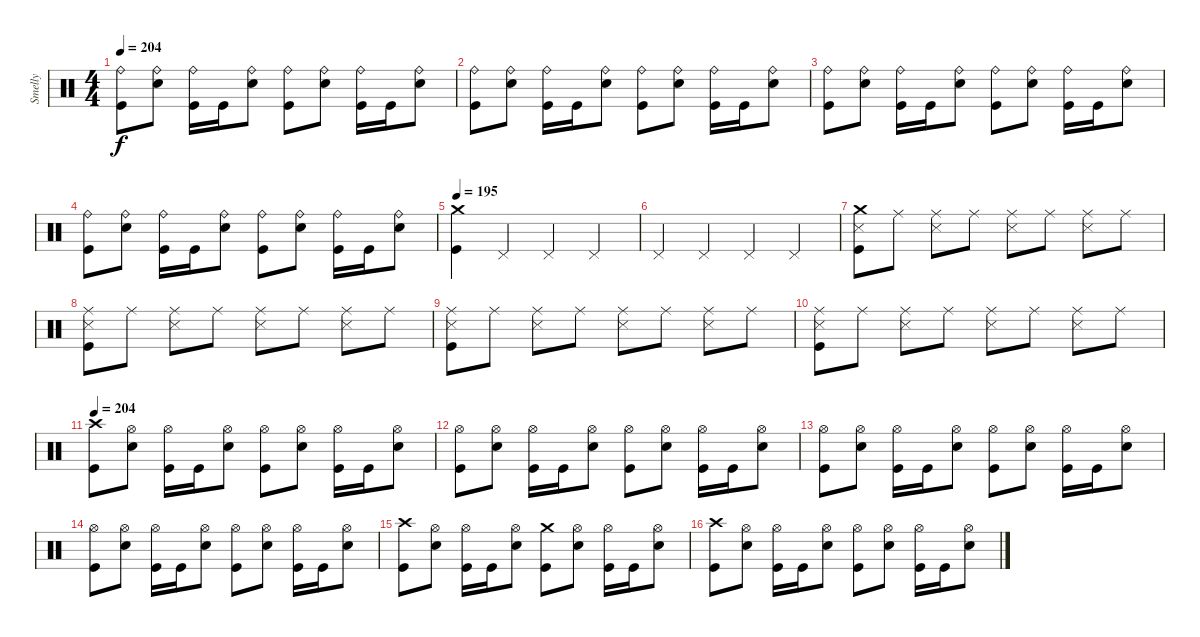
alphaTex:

\track ("Smelly" "Smelly") {instrument percussion}
\staff {score}
\articulation defaults
\ts (4 4)
\tempo 204
\clef neutral
\ks c
("Ride (bell)" "Kick (hit)").8{dy f} ("Ride (bell)" "Snare (hit) 2").8 ("Ride (bell)" "Kick (hit)").16 "Kick (hit)".16 ("Ride (bell)" "Snare (hit) 2").8 ("Ride (bell)" "Kick (hit)").8 ("Ride (bell)" "Snare (hit) 2").8 ("Ride (bell)" "Kick (hit)").16 "Kick (hit)".16 ("Ride (bell)" "Snare (hit) 2").8 |
("Ride (bell)" "Kick (hit)").8 ("Ride (bell)" "Snare (hit) 2").8 ("Ride (bell)" "Kick (hit)").16 "Kick (hit)".16 ("Ride (bell)" "Snare (hit) 2").8 ("Ride (bell)" "Kick (hit)").8 ("Ride (bell)" "Snare (hit) 2").8 ("Ride (bell)" "Kick (hit)").16 "Kick (hit)".16 ("Ride (bell)" "Snare (hit) 2").8 |
("Ride (bell)" "Kick (hit)").8 ("Ride (bell)" "Snare (hit) 2").8 ("Ride (bell)" "Kick (hit)").16 "Kick (hit)".16 ("Ride (bell)" "Snare (hit) 2").8 ("Ride (bell)" "Kick (hit)").8 ("Ride (bell)" "Snare (hit) 2").8 ("Ride (bell)" "Kick (hit)").16 "Kick (hit)".16 ("Ride (bell)" "Snare (hit) 2").8 |
("Ride (bell)" "Kick (hit)").8 ("Ride (bell)" "Snare (hit) 2").8 ("Ride (bell)" "Kick (hit)").16 "Kick (hit)".16 ("Ride (bell)" "Snare (hit) 2").8 ("Ride (bell)" "Kick (hit)").8 ("Ride (bell)" "Snare (hit) 2").8 ("Ride (bell)" "Kick (hit)").16 "Kick (hit)".16 ("Ride (bell)" "Snare (hit) 2").8 |
\tempo 195
("Crash medium (hit)" "Kick (hit)").4 "Pedal Hi-Hat (hit)".4 "Pedal Hi-Hat (hit)".4 "Pedal Hi-Hat (hit)".4 |
"Pedal Hi-Hat (hit)".4 "Pedal Hi-Hat (hit)".4 "Pedal Hi-Hat (hit)".4 "Pedal Hi-Hat (hit)".4 |
("Crash medium (hit)" "Snare (side stick) 3" "Kick (hit)").8 "Ride (middle)".8 ("Ride (middle)" "Snare (side stick) 3").8 "Ride (middle)".8 ("Ride (middle)" "Snare (side stick) 3").8 "Ride (middle)".8 ("Ride (middle)" "Snare (side stick) 3").8 "Ride (middle)".8 |
("Ride (middle)" "Snare (side stick) 3" "Kick (hit)").8 "Ride (middle)".8 ("Ride (middle)" "Snare (side stick) 3").8 "Ride (middle)".8 ("Ride (middle)" "Snare (side stick) 3").8 "Ride (middle)".8 ("Ride (middle)" "Snare (side stick) 3").8 "Ride (middle)".8 |
("Ride (middle)" "Snare (side stick) 3" "Kick (hit)").8 "Ride (middle)".8 ("Ride (middle)" "Snare (side stick) 3").8 "Ride (middle)".8 ("Ride (middle)" "Snare (side stick) 3").8 "Ride (middle)".8 ("Ride (middle)" "Snare (side stick) 3").8 "Ride (middle)".8 |
("Ride (middle)" "Snare (side stick) 3" "Kick (hit)").8 "Ride (middle)".8 ("Ride (middle)" "Snare (side stick) 3").8 "Ride (middle)".8 ("Ride (middle)" "Snare (side stick) 3").8 "Ride (middle)".8 ("Ride (middle)" "Snare (side stick) 3").8 "Ride (middle)".8 |
\tempo 204
("Crash high (hit)" "Kick (hit)").8 ("Hi-Hat (open)" "Snare (hit) 2").8 ("Hi-Hat (open)" "Kick (hit)").16 "Kick (hit)".16 ("Hi-Hat (open)" "Snare (hit) 2").8 ("Hi-Hat (open)" "Kick (hit)").8 ("Hi-Hat (open)" "Snare (hit) 2").8 ("Hi-Hat (open)" "Kick (hit)").16 "Kick (hit)".16 ("Hi-Hat (open)" "Snare (hit) 2").8 |
("Hi-Hat (open)" "Kick (hit)").8 ("Hi-Hat (open)" "Snare (hit) 2").8 ("Hi-Hat (open)" "Kick (hit)").16 "Kick (hit)".16 ("Hi-Hat (open)" "Snare (hit) 2").8 ("Hi-Hat (open)" "Kick (hit)").8 ("Hi-Hat (open)" "Snare (hit) 2").8 ("Hi-Hat (open)" "Kick (hit)").16 "Kick (hit)".16 ("Hi-Hat (open)" "Snare (hit) 2").8 |
("Hi-Hat (open)" "Kick (hit)").8 ("Hi-Hat (open)" "Snare (hit) 2").8 ("Hi-Hat (open)" "Kick (hit)").16 "Kick (hit)".16 ("Hi-Hat (open)" "Snare (hit) 2").8 ("Hi-Hat (open)" "Kick (hit)").8 ("Hi-Hat (open)" "Snare (hit) 2").8 ("Hi-Hat (open)" "Kick (hit)").16 "Kick (hit)".16 ("Hi-Hat (open)" "Snare (hit) 2").8 |
("Hi-Hat (open)" "Kick (hit)").8 ("Hi-Hat (open)" "Snare (hit) 2").8 ("Hi-Hat (open)" "Kick (hit)").16 "Kick (hit)".16 ("Hi-Hat (open)" "Snare (hit) 2").8 ("Hi-Hat (open)" "Kick (hit)").8 ("Hi-Hat (open)" "Snare (hit) 2").8 ("Hi-Hat (open)" "Kick (hit)").16 "Kick (hit)".16 ("Hi-Hat (open)" "Snare (hit) 2").8 |
("Crash high (hit)" "Kick (hit)").8 ("Hi-Hat (open)" "Snare (hit) 2").8 ("Hi-Hat (open)" "Kick (hit)").16 "Kick (hit)".16 ("Hi-Hat (open)" "Snare (hit) 2").8 ("Crash medium (hit)" "Kick (hit)").8 ("Hi-Hat (open)" "Snare (hit) 2").8 ("Hi-Hat (open)" "Kick (hit)").16 "Kick (hit)".16 ("Hi-Hat (open)" "Snare (hit) 2").8 |
("Crash high (hit)" "Kick (hit)").8 ("Hi-Hat (open)" "Snare (hit) 2").8 ("Hi-Hat (open)" "Kick (hit)").16 "Kick (hit)".16 ("Hi-Hat (open)" "Snare (hit) 2").8 ("Hi-Hat (open)" "Kick (hit)").8 ("Hi-Hat (open)" "Snare (hit) 2").8 ("Hi-Hat (open)" "Kick (hit)").16 "Kick (hit)".16 ("Hi-Hat (open)" "Snare (hit) 2").8
